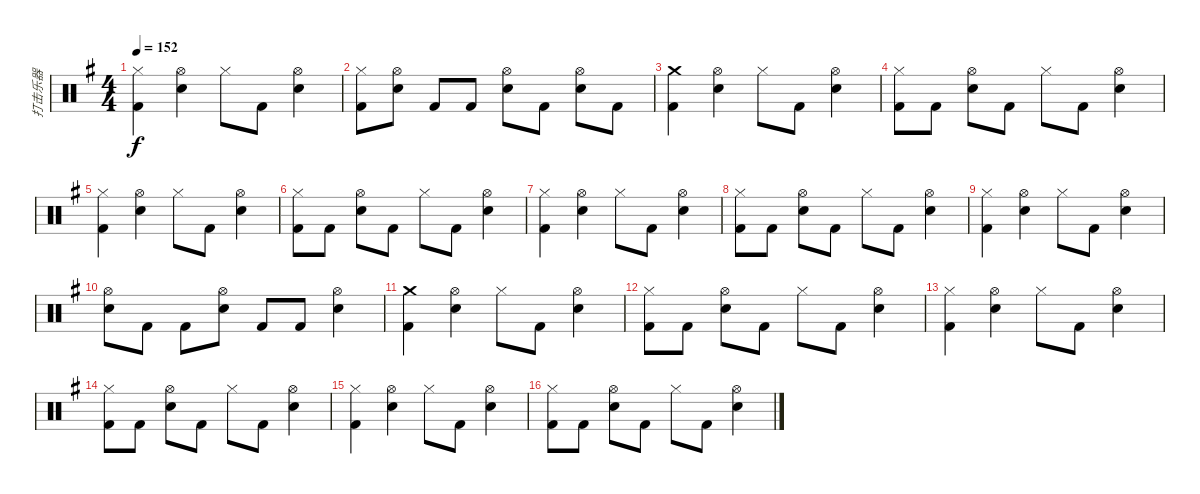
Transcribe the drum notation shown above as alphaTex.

\track ("打击乐器" "打击乐器") {instrument percussion}
\staff {score}
\articulation defaults
\ts (4 4)
\tempo 152
\clef neutral
\ks g
("Hi-Hat (closed)" "Kick (hit) 2").4{dy f} ("Hi-Hat (open)" "Metronome (bell)").4 "Hi-Hat (closed)".8 "Kick (hit) 2".8 ("Hi-Hat (open)" "Metronome (bell)").4 |
("Hi-Hat (closed)" "Kick (hit) 2").8 ("Hi-Hat (open)" "Metronome (bell)").8 "Kick (hit) 2".8 "Kick (hit) 2".8 ("Hi-Hat (open)" "Metronome (bell)").8 "Kick (hit) 2".8 ("Hi-Hat (open)" "Metronome (bell)").8 "Kick (hit) 2".8 |
("Crash medium (hit)" "Kick (hit) 2").4 ("Hi-Hat (open)" "Metronome (bell)").4 "Hi-Hat (closed)".8 "Kick (hit) 2".8 ("Hi-Hat (open)" "Metronome (bell)").4 |
("Hi-Hat (closed)" "Kick (hit) 2").8 "Kick (hit) 2".8 ("Hi-Hat (open)" "Metronome (bell)").8 "Kick (hit) 2".8 "Hi-Hat (closed)".8 "Kick (hit) 2".8 ("Hi-Hat (open)" "Metronome (bell)").4 |
("Hi-Hat (closed)" "Kick (hit) 2").4 ("Hi-Hat (open)" "Metronome (bell)").4 "Hi-Hat (closed)".8 "Kick (hit) 2".8 ("Hi-Hat (open)" "Metronome (bell)").4 |
("Hi-Hat (closed)" "Kick (hit) 2").8 "Kick (hit) 2".8 ("Hi-Hat (open)" "Metronome (bell)").8 "Kick (hit) 2".8 "Hi-Hat (closed)".8 "Kick (hit) 2".8 ("Hi-Hat (open)" "Metronome (bell)").4 |
("Hi-Hat (closed)" "Kick (hit) 2").4 ("Hi-Hat (open)" "Metronome (bell)").4 "Hi-Hat (closed)".8 "Kick (hit) 2".8 ("Hi-Hat (open)" "Metronome (bell)").4 |
("Hi-Hat (closed)" "Kick (hit) 2").8 "Kick (hit) 2".8 ("Hi-Hat (open)" "Metronome (bell)").8 "Kick (hit) 2".8 "Hi-Hat (closed)".8 "Kick (hit) 2".8 ("Hi-Hat (open)" "Metronome (bell)").4 |
("Hi-Hat (closed)" "Kick (hit) 2").4 ("Hi-Hat (open)" "Metronome (bell)").4 "Hi-Hat (closed)".8 "Kick (hit) 2".8 ("Hi-Hat (open)" "Metronome (bell)").4 |
("Hi-Hat (open)" "Metronome (bell)").8 "Kick (hit) 2".8 "Kick (hit) 2".8 ("Hi-Hat (open)" "Metronome (bell)").8 "Kick (hit) 2".8 "Kick (hit) 2".8 ("Hi-Hat (open)" "Metronome (bell)").4 |
("Crash medium (hit)" "Kick (hit) 2").4 ("Hi-Hat (open)" "Metronome (bell)").4 "Hi-Hat (closed)".8 "Kick (hit) 2".8 ("Hi-Hat (open)" "Metronome (bell)").4 |
("Hi-Hat (closed)" "Kick (hit) 2").8 "Kick (hit) 2".8 ("Hi-Hat (open)" "Metronome (bell)").8 "Kick (hit) 2".8 "Hi-Hat (closed)".8 "Kick (hit) 2".8 ("Hi-Hat (open)" "Metronome (bell)").4 |
("Hi-Hat (closed)" "Kick (hit) 2").4 ("Hi-Hat (open)" "Metronome (bell)").4 "Hi-Hat (closed)".8 "Kick (hit) 2".8 ("Hi-Hat (open)" "Metronome (bell)").4 |
("Hi-Hat (closed)" "Kick (hit) 2").8 "Kick (hit) 2".8 ("Hi-Hat (open)" "Metronome (bell)").8 "Kick (hit) 2".8 "Hi-Hat (closed)".8 "Kick (hit) 2".8 ("Hi-Hat (open)" "Metronome (bell)").4 |
("Hi-Hat (closed)" "Kick (hit) 2").4 ("Hi-Hat (open)" "Metronome (bell)").4 "Hi-Hat (closed)".8 "Kick (hit) 2".8 ("Hi-Hat (open)" "Metronome (bell)").4 |
("Hi-Hat (closed)" "Kick (hit) 2").8 "Kick (hit) 2".8 ("Hi-Hat (open)" "Metronome (bell)").8 "Kick (hit) 2".8 "Hi-Hat (closed)".8 "Kick (hit) 2".8 ("Hi-Hat (open)" "Metronome (bell)").4
